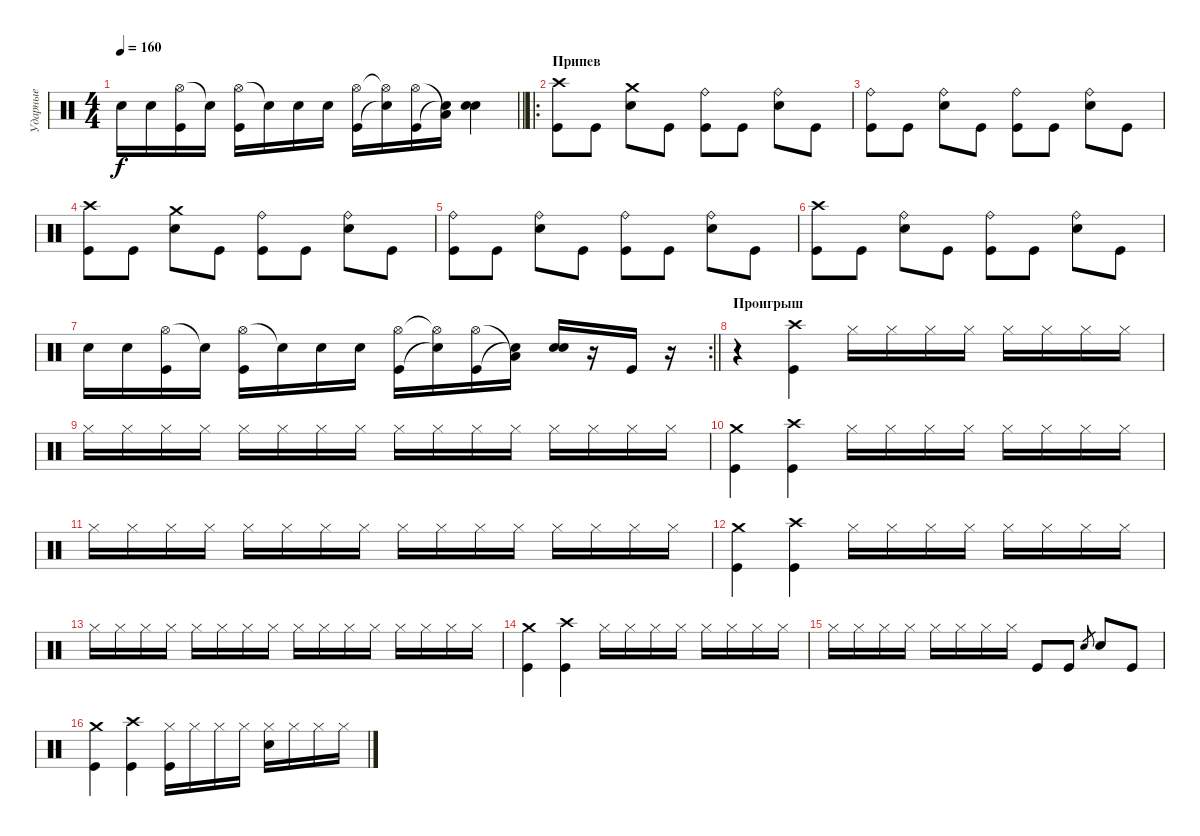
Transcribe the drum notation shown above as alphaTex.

\track ("Ударные" "Ударные") {instrument percussion}
\staff {score}
\articulation defaults
\ts (4 4)
\tempo 160
\clef neutral
\barLineRight lightlight
\ks c "Electric Snare (hit)".16{dy f} "Electric Snare (hit)".16
("Hi-Hat (open)" "Kick (hit)").16 "Snare (hit)"{t}.16 ("Hi-Hat (open)" "Kick (hit)").16 "Snare (hit)"{t}.16 "Electric Snare (hit)".16 "Electric Snare (hit)".16 ("Hi-Hat (open)" "Kick (hit)").16 ("Hi-Hat (open)"{t} "Snare (hit)"{t}).16 ("Hi-Hat (open)" "Kick (hit)").16 ("Low Tom (hit)"{t} "Snare (hit)"{t}).16 ("Electric Snare (hit)" "Electric Snare (hit)").4 |
\ro
\section ("" "Припев")
("Crash high (hit)" "Kick (hit)").8 "Kick (hit)".8 ("Crash medium (hit)" "Electric Snare (hit)").8 "Kick (hit)".8 ("Ride (bell)" "Kick (hit)").8 "Kick (hit)".8 ("Ride (bell)" "Electric Snare (hit)").8 "Kick (hit)".8 |
("Ride (bell)" "Kick (hit)").8 "Kick (hit)".8 ("Ride (bell)" "Electric Snare (hit)").8 "Kick (hit)".8 ("Ride (bell)" "Kick (hit)").8 "Kick (hit)".8 ("Ride (bell)" "Electric Snare (hit)").8 "Kick (hit)".8 |
("Crash high (hit)" "Kick (hit)").8 "Kick (hit)".8 ("Crash medium (hit)" "Electric Snare (hit)").8 "Kick (hit)".8 ("Ride (bell)" "Kick (hit)").8 "Kick (hit)".8 ("Ride (bell)" "Electric Snare (hit)").8 "Kick (hit)".8 |
("Ride (bell)" "Kick (hit)").8 "Kick (hit)".8 ("Ride (bell)" "Electric Snare (hit)").8 "Kick (hit)".8 ("Ride (bell)" "Kick (hit)").8 "Kick (hit)".8 ("Ride (bell)" "Electric Snare (hit)").8 "Kick (hit)".8 |
("Crash high (hit)" "Kick (hit)").8 "Kick (hit)".8 ("Ride (bell)" "Electric Snare (hit)").8 "Kick (hit)".8 ("Ride (bell)" "Kick (hit)").8 "Kick (hit)".8 ("Ride (bell)" "Electric Snare (hit)").8 "Kick (hit)".8 |
\rc 2
\barLineRight lightlight "Electric Snare (hit)".16 "Electric Snare (hit)".16
("Hi-Hat (open)" "Kick (hit)").16 "Snare (hit)"{t}.16 ("Hi-Hat (open)" "Kick (hit)").16 "Snare (hit)"{t}.16 "Electric Snare (hit)".16 "Electric Snare (hit)".16 ("Hi-Hat (open)" "Kick (hit)").16 ("Hi-Hat (open)"{t} "Snare (hit)"{t}).16 ("Hi-Hat (open)" "Kick (hit)").16 ("Low Tom (hit)"{t} "Snare (hit)"{t}).16 ("Electric Snare (hit)" "Electric Snare (hit)").16 r.16 "Kick (hit)".16 r.16 |
\section ("" "Проигрыш")
r.4 ("Crash high (hit)" "Kick (hit)").4 "Hi-Hat (closed)".16 "Hi-Hat (closed)".16 "Hi-Hat (closed)".16 "Hi-Hat (closed)".16 "Hi-Hat (closed)".16 "Hi-Hat (closed)".16 "Hi-Hat (closed)".16 "Hi-Hat (closed)".16 |
"Hi-Hat (closed)".16 "Hi-Hat (closed)".16 "Hi-Hat (closed)".16 "Hi-Hat (closed)".16 "Hi-Hat (closed)".16 "Hi-Hat (closed)".16 "Hi-Hat (closed)".16 "Hi-Hat (closed)".16 "Hi-Hat (closed)".16 "Hi-Hat (closed)".16 "Hi-Hat (closed)".16 "Hi-Hat (closed)".16 "Hi-Hat (closed)".16 "Hi-Hat (closed)".16 "Hi-Hat (closed)".16 "Hi-Hat (closed)".16 |
("Crash medium (hit)" "Kick (hit)").4 ("Crash high (hit)" "Kick (hit)").4 "Hi-Hat (closed)".16 "Hi-Hat (closed)".16 "Hi-Hat (closed)".16 "Hi-Hat (closed)".16 "Hi-Hat (closed)".16 "Hi-Hat (closed)".16 "Hi-Hat (closed)".16 "Hi-Hat (closed)".16 |
"Hi-Hat (closed)".16 "Hi-Hat (closed)".16 "Hi-Hat (closed)".16 "Hi-Hat (closed)".16 "Hi-Hat (closed)".16 "Hi-Hat (closed)".16 "Hi-Hat (closed)".16 "Hi-Hat (closed)".16 "Hi-Hat (closed)".16 "Hi-Hat (closed)".16 "Hi-Hat (closed)".16 "Hi-Hat (closed)".16 "Hi-Hat (closed)".16 "Hi-Hat (closed)".16 "Hi-Hat (closed)".16 "Hi-Hat (closed)".16 |
("Crash medium (hit)" "Kick (hit)").4 ("Crash high (hit)" "Kick (hit)").4 "Hi-Hat (closed)".16 "Hi-Hat (closed)".16 "Hi-Hat (closed)".16 "Hi-Hat (closed)".16 "Hi-Hat (closed)".16 "Hi-Hat (closed)".16 "Hi-Hat (closed)".16 "Hi-Hat (closed)".16 |
"Hi-Hat (closed)".16 "Hi-Hat (closed)".16 "Hi-Hat (closed)".16 "Hi-Hat (closed)".16 "Hi-Hat (closed)".16 "Hi-Hat (closed)".16 "Hi-Hat (closed)".16 "Hi-Hat (closed)".16 "Hi-Hat (closed)".16 "Hi-Hat (closed)".16 "Hi-Hat (closed)".16 "Hi-Hat (closed)".16 "Hi-Hat (closed)".16 "Hi-Hat (closed)".16 "Hi-Hat (closed)".16 "Hi-Hat (closed)".16 |
("Crash medium (hit)" "Kick (hit)").4 ("Crash high (hit)" "Kick (hit)").4 "Hi-Hat (closed)".16 "Hi-Hat (closed)".16 "Hi-Hat (closed)".16 "Hi-Hat (closed)".16 "Hi-Hat (closed)".16 "Hi-Hat (closed)".16 "Hi-Hat (closed)".16 "Hi-Hat (closed)".16 |
"Hi-Hat (closed)".16 "Hi-Hat (closed)".16 "Hi-Hat (closed)".16 "Hi-Hat (closed)".16 "Hi-Hat (closed)".16 "Hi-Hat (closed)".16 "Hi-Hat (closed)".16 "Hi-Hat (closed)".16 "Kick (hit)".8 "Kick (hit)".8 "Electric Snare (hit)".8{gr} "Electric Snare (hit)".8 "Kick (hit)".8 |
("Crash medium (hit)" "Kick (hit)").4 ("Crash high (hit)" "Kick (hit)").4 ("Hi-Hat (closed)" "Kick (hit)").16 "Hi-Hat (closed)".16 "Hi-Hat (closed)".16 "Hi-Hat (closed)".16 ("Hi-Hat (closed)" "Electric Snare (hit)").16 "Hi-Hat (closed)".16 "Hi-Hat (closed)".16 "Hi-Hat (closed)".16
